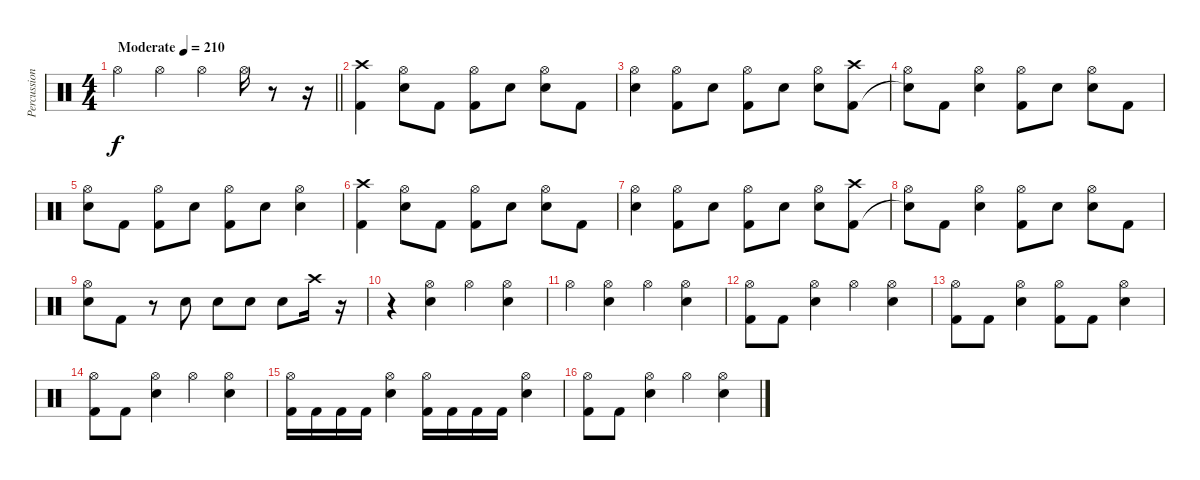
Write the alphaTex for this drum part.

\track ("Percussion" "Percussion") {instrument percussion}
\staff {score}
\articulation defaults
\ts (4 4)
\tempo (210 "Moderate")
\clef neutral
\barLineRight lightlight
\ks c "Hi-Hat (open)".4{dy f} "Hi-Hat (open)".4 "Hi-Hat (open)".4 "Hi-Hat (open)".16
r.8 r.16 |
\section ("" "")
("Crash high (hit)" "Kick (hit) 2").4 ("Hi-Hat (open)" "Electric Snare (hit)").8 "Kick (hit) 2".8 ("Hi-Hat (open)" "Kick (hit) 2").8 "Electric Snare (hit)".8 ("Hi-Hat (open)" "Electric Snare (hit)").8 "Kick (hit) 2".8 |
("Hi-Hat (open)" "Electric Snare (hit)").4 ("Hi-Hat (open)" "Kick (hit) 2").8 "Electric Snare (hit)".8 ("Hi-Hat (open)" "Kick (hit) 2").8 "Electric Snare (hit)".8 ("Hi-Hat (open)" "Electric Snare (hit)").8 ("Crash high (hit)" "Kick (hit) 2").8 |
("Hi-Hat (open)" "Snare (hit)"{t}).8 "Kick (hit) 2".8 ("Hi-Hat (open)" "Electric Snare (hit)").4 ("Hi-Hat (open)" "Kick (hit) 2").8 "Electric Snare (hit)".8 ("Hi-Hat (open)" "Electric Snare (hit)").8 "Kick (hit) 2".8 |
("Hi-Hat (open)" "Electric Snare (hit)").8 "Kick (hit) 2".8 ("Hi-Hat (open)" "Kick (hit) 2").8 "Electric Snare (hit)".8 ("Hi-Hat (open)" "Kick (hit) 2").8 "Electric Snare (hit)".8 ("Hi-Hat (open)" "Electric Snare (hit)").4 |
("Crash high (hit)" "Kick (hit) 2").4 ("Hi-Hat (open)" "Electric Snare (hit)").8 "Kick (hit) 2".8 ("Hi-Hat (open)" "Kick (hit) 2").8 "Electric Snare (hit)".8 ("Hi-Hat (open)" "Electric Snare (hit)").8 "Kick (hit) 2".8 |
("Hi-Hat (open)" "Electric Snare (hit)").4 ("Hi-Hat (open)" "Kick (hit) 2").8 "Electric Snare (hit)".8 ("Hi-Hat (open)" "Kick (hit) 2").8 "Electric Snare (hit)".8 ("Hi-Hat (open)" "Electric Snare (hit)").8 ("Crash high (hit)" "Kick (hit) 2").8 |
("Hi-Hat (open)" "Snare (hit)"{t}).8 "Kick (hit) 2".8 ("Hi-Hat (open)" "Electric Snare (hit)").4 ("Hi-Hat (open)" "Kick (hit) 2").8 "Electric Snare (hit)".8 ("Hi-Hat (open)" "Electric Snare (hit)").8 "Kick (hit) 2".8 |
("Hi-Hat (open)" "Electric Snare (hit)").8 "Kick (hit) 2".8 r.8 "Electric Snare (hit)".8 "Electric Snare (hit)".8 "Electric Snare (hit)".8 "Electric Snare (hit)".8 "Crash high (hit)".16 r.16 |
r.4 ("Hi-Hat (open)" "Electric Snare (hit)").4 "Hi-Hat (open)".4 ("Hi-Hat (open)" "Electric Snare (hit)").4 |
"Hi-Hat (open)".4 ("Hi-Hat (open)" "Electric Snare (hit)").4 "Hi-Hat (open)".4 ("Hi-Hat (open)" "Electric Snare (hit)").4 |
("Hi-Hat (open)" "Kick (hit) 2").8 "Kick (hit) 2".8 ("Hi-Hat (open)" "Electric Snare (hit)").4 "Hi-Hat (open)".4 ("Hi-Hat (open)" "Electric Snare (hit)").4 |
("Hi-Hat (open)" "Kick (hit) 2").8 "Kick (hit) 2".8 ("Hi-Hat (open)" "Electric Snare (hit)").4 ("Hi-Hat (open)" "Kick (hit) 2").8 "Kick (hit) 2".8 ("Hi-Hat (open)" "Electric Snare (hit)").4 |
("Hi-Hat (open)" "Kick (hit) 2").8 "Kick (hit) 2".8 ("Hi-Hat (open)" "Electric Snare (hit)").4 "Hi-Hat (open)".4 ("Hi-Hat (open)" "Electric Snare (hit)").4 |
("Hi-Hat (open)" "Kick (hit) 2").16 "Kick (hit) 2".16 "Kick (hit) 2".16 "Kick (hit) 2".16 ("Hi-Hat (open)" "Electric Snare (hit)").4 ("Hi-Hat (open)" "Kick (hit) 2").16 "Kick (hit) 2".16 "Kick (hit) 2".16 "Kick (hit) 2".16 ("Hi-Hat (open)" "Electric Snare (hit)").4 |
("Hi-Hat (open)" "Kick (hit) 2").8 "Kick (hit) 2".8 ("Hi-Hat (open)" "Electric Snare (hit)").4 "Hi-Hat (open)".4 ("Hi-Hat (open)" "Electric Snare (hit)").4
